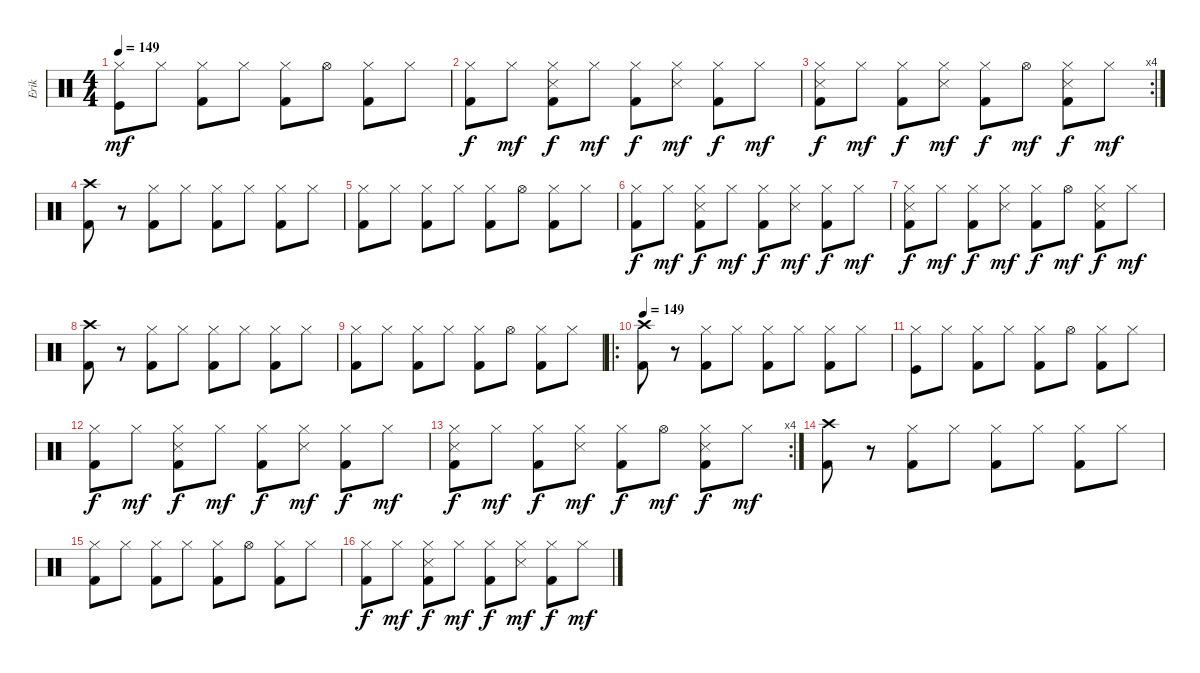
\track ("Erik" "Erik") {instrument percussion}
\staff {score}
\articulation defaults
\ts (4 4)
\tempo 149
\clef neutral
\ks c
("Kick (hit)" "Hi-Hat (closed)").8{dy mf} "Hi-Hat (closed)".8 ("Hi-Hat (closed)" "Kick (hit) 2").8 "Hi-Hat (closed)".8 ("Kick (hit) 2" "Hi-Hat (closed)").8 "Hi-Hat (open)".8 ("Kick (hit) 2" "Hi-Hat (closed)").8 "Hi-Hat (closed)".8 |
("Kick (hit) 2" "Hi-Hat (closed)").8{dy f} "Hi-Hat (closed)".8{dy mf} ("Snare (side stick) 3" "Kick (hit) 2" "Hi-Hat (closed)").8{dy f} "Hi-Hat (closed)".8{dy mf} ("Hi-Hat (closed)" "Kick (hit) 2").8{dy f} ("Hi-Hat (closed)" "Snare (side stick) 3").8{dy mf} ("Kick (hit) 2" "Hi-Hat (closed)").8{dy f} "Hi-Hat (closed)".8{dy mf} |
\rc 4
("Snare (side stick) 3" "Kick (hit) 2" "Hi-Hat (closed)").8{dy f} "Hi-Hat (closed)".8{dy mf} ("Hi-Hat (closed)" "Kick (hit) 2").8{dy f} ("Hi-Hat (closed)" "Snare (side stick) 3").8{dy mf} ("Kick (hit) 2" "Hi-Hat (closed)").8{dy f} "Hi-Hat (open)".8{dy mf} ("Kick (hit) 2" "Snare (side stick) 3" "Hi-Hat (closed)").8{dy f} "Hi-Hat (closed)".8{dy mf} |
("Crash high (hit)" "Kick (hit) 2").8 r.8 ("Hi-Hat (closed)" "Kick (hit) 2").8 "Hi-Hat (closed)".8 ("Hi-Hat (closed)" "Kick (hit) 2").8 "Hi-Hat (closed)".8 ("Hi-Hat (closed)" "Kick (hit) 2").8 "Hi-Hat (closed)".8 |
("Hi-Hat (closed)" "Kick (hit) 2").8 "Hi-Hat (closed)".8 ("Hi-Hat (closed)" "Kick (hit) 2").8 "Hi-Hat (closed)".8 ("Hi-Hat (closed)" "Kick (hit) 2").8 "Hi-Hat (open)".8 ("Kick (hit) 2" "Hi-Hat (closed)").8 "Hi-Hat (closed)".8 |
("Kick (hit) 2" "Hi-Hat (closed)").8{dy f} "Hi-Hat (closed)".8{dy mf} ("Snare (side stick) 3" "Kick (hit) 2" "Hi-Hat (closed)").8{dy f} "Hi-Hat (closed)".8{dy mf} ("Hi-Hat (closed)" "Kick (hit) 2").8{dy f} ("Hi-Hat (closed)" "Snare (side stick) 3").8{dy mf} ("Kick (hit) 2" "Hi-Hat (closed)").8{dy f} "Hi-Hat (closed)".8{dy mf} |
("Snare (side stick) 3" "Kick (hit) 2" "Hi-Hat (closed)").8{dy f} "Hi-Hat (closed)".8{dy mf} ("Hi-Hat (closed)" "Kick (hit) 2").8{dy f} ("Hi-Hat (closed)" "Snare (side stick) 3").8{dy mf} ("Kick (hit) 2" "Hi-Hat (closed)").8{dy f} "Hi-Hat (open)".8{dy mf} ("Kick (hit) 2" "Snare (side stick) 3" "Hi-Hat (closed)").8{dy f} "Hi-Hat (closed)".8{dy mf} |
("Crash high (hit)" "Kick (hit) 2").8 r.8 ("Hi-Hat (closed)" "Kick (hit) 2").8 "Hi-Hat (closed)".8 ("Hi-Hat (closed)" "Kick (hit) 2").8 "Hi-Hat (closed)".8 ("Hi-Hat (closed)" "Kick (hit) 2").8 "Hi-Hat (closed)".8 |
("Hi-Hat (closed)" "Kick (hit) 2").8 "Hi-Hat (closed)".8 ("Hi-Hat (closed)" "Kick (hit) 2").8 "Hi-Hat (closed)".8 ("Hi-Hat (closed)" "Kick (hit) 2").8 "Hi-Hat (open)".8 ("Kick (hit) 2" "Hi-Hat (closed)").8 "Hi-Hat (closed)".8 |
\ro
\tempo 149
("Crash high (hit)" "Kick (hit) 2").8 r.8 ("Hi-Hat (closed)" "Kick (hit) 2").8 "Hi-Hat (closed)".8 ("Hi-Hat (closed)" "Kick (hit) 2").8 "Hi-Hat (closed)".8 ("Hi-Hat (closed)" "Kick (hit) 2").8 "Hi-Hat (closed)".8 |
("Kick (hit)" "Hi-Hat (closed)").8 "Hi-Hat (closed)".8 ("Hi-Hat (closed)" "Kick (hit) 2").8 "Hi-Hat (closed)".8 ("Kick (hit) 2" "Hi-Hat (closed)").8 "Hi-Hat (open)".8 ("Kick (hit) 2" "Hi-Hat (closed)").8 "Hi-Hat (closed)".8 |
("Kick (hit) 2" "Hi-Hat (closed)").8{dy f} "Hi-Hat (closed)".8{dy mf} ("Snare (side stick) 3" "Kick (hit) 2" "Hi-Hat (closed)").8{dy f} "Hi-Hat (closed)".8{dy mf} ("Hi-Hat (closed)" "Kick (hit) 2").8{dy f} ("Hi-Hat (closed)" "Snare (side stick) 3").8{dy mf} ("Kick (hit) 2" "Hi-Hat (closed)").8{dy f} "Hi-Hat (closed)".8{dy mf} |
\rc 4
("Snare (side stick) 3" "Kick (hit) 2" "Hi-Hat (closed)").8{dy f} "Hi-Hat (closed)".8{dy mf} ("Hi-Hat (closed)" "Kick (hit) 2").8{dy f} ("Hi-Hat (closed)" "Snare (side stick) 3").8{dy mf} ("Kick (hit) 2" "Hi-Hat (closed)").8{dy f} "Hi-Hat (open)".8{dy mf} ("Kick (hit) 2" "Snare (side stick) 3" "Hi-Hat (closed)").8{dy f} "Hi-Hat (closed)".8{dy mf} |
("Crash high (hit)" "Kick (hit) 2").8 r.8 ("Hi-Hat (closed)" "Kick (hit) 2").8 "Hi-Hat (closed)".8 ("Hi-Hat (closed)" "Kick (hit) 2").8 "Hi-Hat (closed)".8 ("Hi-Hat (closed)" "Kick (hit) 2").8 "Hi-Hat (closed)".8 |
("Hi-Hat (closed)" "Kick (hit) 2").8 "Hi-Hat (closed)".8 ("Hi-Hat (closed)" "Kick (hit) 2").8 "Hi-Hat (closed)".8 ("Hi-Hat (closed)" "Kick (hit) 2").8 "Hi-Hat (open)".8 ("Kick (hit) 2" "Hi-Hat (closed)").8 "Hi-Hat (closed)".8 |
("Kick (hit) 2" "Hi-Hat (closed)").8{dy f} "Hi-Hat (closed)".8{dy mf} ("Snare (side stick) 3" "Kick (hit) 2" "Hi-Hat (closed)").8{dy f} "Hi-Hat (closed)".8{dy mf} ("Hi-Hat (closed)" "Kick (hit) 2").8{dy f} ("Hi-Hat (closed)" "Snare (side stick) 3").8{dy mf} ("Kick (hit) 2" "Hi-Hat (closed)").8{dy f} "Hi-Hat (closed)".8{dy mf}
